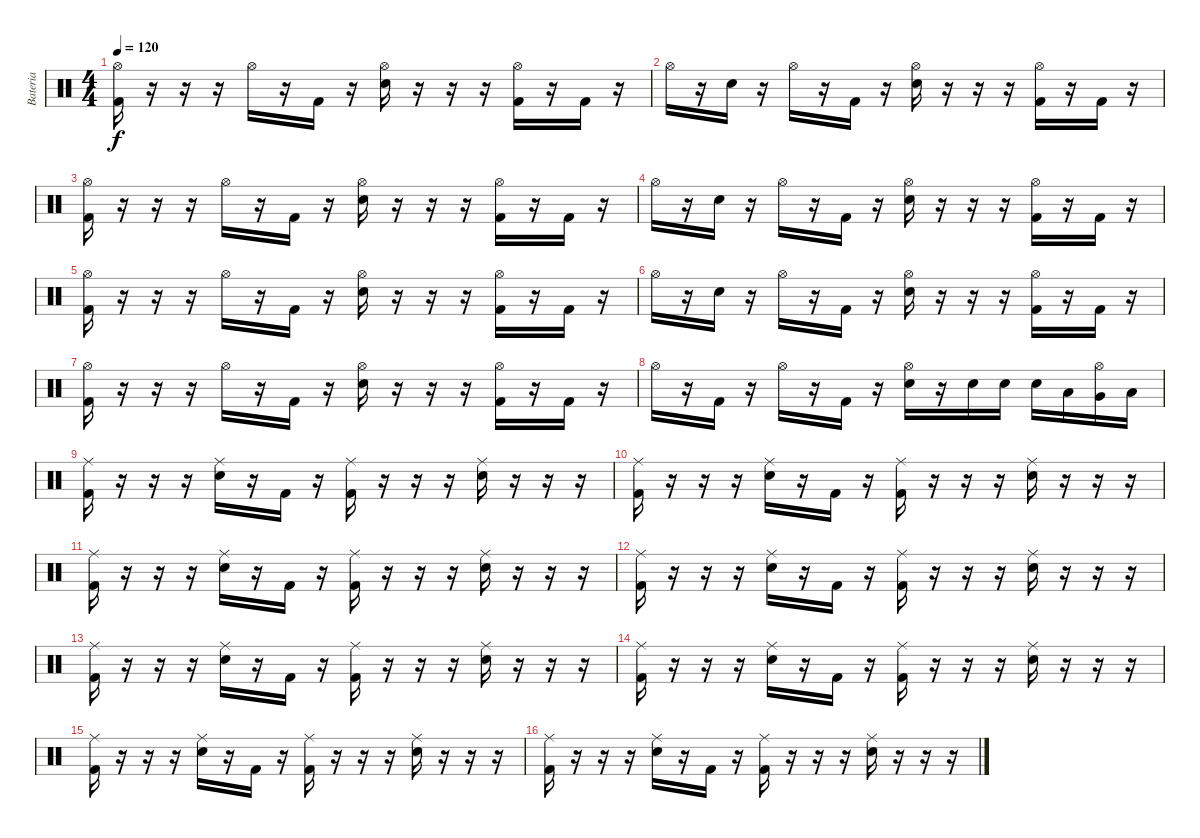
\track ("Bateria" "Bateria") {instrument percussion}
\staff {score}
\articulation defaults
\ts (4 4)
\tempo 120
\clef neutral
\ks c
("Kick (hit) 2" "Hi-Hat (open)").16{dy f} r.16 r.16 r.16 "Hi-Hat (open)".16 r.16 "Kick (hit) 2".16 r.16 ("Electric Snare (hit)" "Hi-Hat (open)").16 r.16 r.16 r.16 ("Kick (hit) 2" "Hi-Hat (open)").16 r.16 "Kick (hit) 2".16 r.16 |
"Hi-Hat (open)".16 r.16 "Electric Snare (hit)".16 r.16 "Hi-Hat (open)".16 r.16 "Kick (hit) 2".16 r.16 ("Electric Snare (hit)" "Hi-Hat (open)").16 r.16 r.16 r.16 ("Kick (hit) 2" "Hi-Hat (open)").16 r.16 "Kick (hit) 2".16 r.16 |
("Kick (hit) 2" "Hi-Hat (open)").16 r.16 r.16 r.16 "Hi-Hat (open)".16 r.16 "Kick (hit) 2".16 r.16 ("Electric Snare (hit)" "Hi-Hat (open)").16 r.16 r.16 r.16 ("Kick (hit) 2" "Hi-Hat (open)").16 r.16 "Kick (hit) 2".16 r.16 |
"Hi-Hat (open)".16 r.16 "Electric Snare (hit)".16 r.16 "Hi-Hat (open)".16 r.16 "Kick (hit) 2".16 r.16 ("Electric Snare (hit)" "Hi-Hat (open)").16 r.16 r.16 r.16 ("Kick (hit) 2" "Hi-Hat (open)").16 r.16 "Kick (hit) 2".16 r.16 |
("Kick (hit) 2" "Hi-Hat (open)").16 r.16 r.16 r.16 "Hi-Hat (open)".16 r.16 "Kick (hit) 2".16 r.16 ("Electric Snare (hit)" "Hi-Hat (open)").16 r.16 r.16 r.16 ("Kick (hit) 2" "Hi-Hat (open)").16 r.16 "Kick (hit) 2".16 r.16 |
"Hi-Hat (open)".16 r.16 "Electric Snare (hit)".16 r.16 "Hi-Hat (open)".16 r.16 "Kick (hit) 2".16 r.16 ("Electric Snare (hit)" "Hi-Hat (open)").16 r.16 r.16 r.16 ("Kick (hit) 2" "Hi-Hat (open)").16 r.16 "Kick (hit) 2".16 r.16 |
("Kick (hit) 2" "Hi-Hat (open)").16 r.16 r.16 r.16 "Hi-Hat (open)".16 r.16 "Kick (hit) 2".16 r.16 ("Electric Snare (hit)" "Hi-Hat (open)").16 r.16 r.16 r.16 ("Kick (hit) 2" "Hi-Hat (open)").16 r.16 "Kick (hit) 2".16 r.16 |
"Hi-Hat (open)".16 r.16 "Kick (hit) 2".16 r.16 "Hi-Hat (open)".16 r.16 "Kick (hit) 2".16 r.16 ("Electric Snare (hit)" "Hi-Hat (open)").16 r.16 "Electric Snare (hit)".16 "Electric Snare (hit)".16 "Electric Snare (hit)".16 "Low Tom (hit)".16 ("Very Low Tom (hit)" "Hi-Hat (open)").16 "Low Floor Tom (hit)".16 |
("Kick (hit) 2" "Ride (middle)").16 r.16 r.16 r.16 ("Electric Snare (hit)" "Ride (middle)").16 r.16 "Kick (hit) 2".16 r.16 ("Kick (hit) 2" "Ride (middle)").16 r.16 r.16 r.16 ("Electric Snare (hit)" "Ride (middle)").16 r.16 r.16 r.16 |
("Kick (hit) 2" "Ride (middle)").16 r.16 r.16 r.16 ("Electric Snare (hit)" "Ride (middle)").16 r.16 "Kick (hit) 2".16 r.16 ("Kick (hit) 2" "Ride (middle)").16 r.16 r.16 r.16 ("Electric Snare (hit)" "Ride (middle)").16 r.16 r.16 r.16 |
("Kick (hit) 2" "Ride (middle)").16 r.16 r.16 r.16 ("Electric Snare (hit)" "Ride (middle)").16 r.16 "Kick (hit) 2".16 r.16 ("Kick (hit) 2" "Ride (middle)").16 r.16 r.16 r.16 ("Electric Snare (hit)" "Ride (middle)").16 r.16 r.16 r.16 |
("Kick (hit) 2" "Ride (middle)").16 r.16 r.16 r.16 ("Electric Snare (hit)" "Ride (middle)").16 r.16 "Kick (hit) 2".16 r.16 ("Kick (hit) 2" "Ride (middle)").16 r.16 r.16 r.16 ("Electric Snare (hit)" "Ride (middle)").16 r.16 r.16 r.16 |
("Kick (hit) 2" "Ride (middle)").16 r.16 r.16 r.16 ("Electric Snare (hit)" "Ride (middle)").16 r.16 "Kick (hit) 2".16 r.16 ("Kick (hit) 2" "Ride (middle)").16 r.16 r.16 r.16 ("Electric Snare (hit)" "Ride (middle)").16 r.16 r.16 r.16 |
("Kick (hit) 2" "Ride (middle)").16 r.16 r.16 r.16 ("Electric Snare (hit)" "Ride (middle)").16 r.16 "Kick (hit) 2".16 r.16 ("Kick (hit) 2" "Ride (middle)").16 r.16 r.16 r.16 ("Electric Snare (hit)" "Ride (middle)").16 r.16 r.16 r.16 |
("Kick (hit) 2" "Ride (middle)").16 r.16 r.16 r.16 ("Electric Snare (hit)" "Ride (middle)").16 r.16 "Kick (hit) 2".16 r.16 ("Kick (hit) 2" "Ride (middle)").16 r.16 r.16 r.16 ("Electric Snare (hit)" "Ride (middle)").16 r.16 r.16 r.16 |
("Kick (hit) 2" "Ride (middle)").16 r.16 r.16 r.16 ("Electric Snare (hit)" "Ride (middle)").16 r.16 "Kick (hit) 2".16 r.16 ("Kick (hit) 2" "Ride (middle)").16 r.16 r.16 r.16 ("Electric Snare (hit)" "Ride (middle)").16 r.16 r.16 r.16
